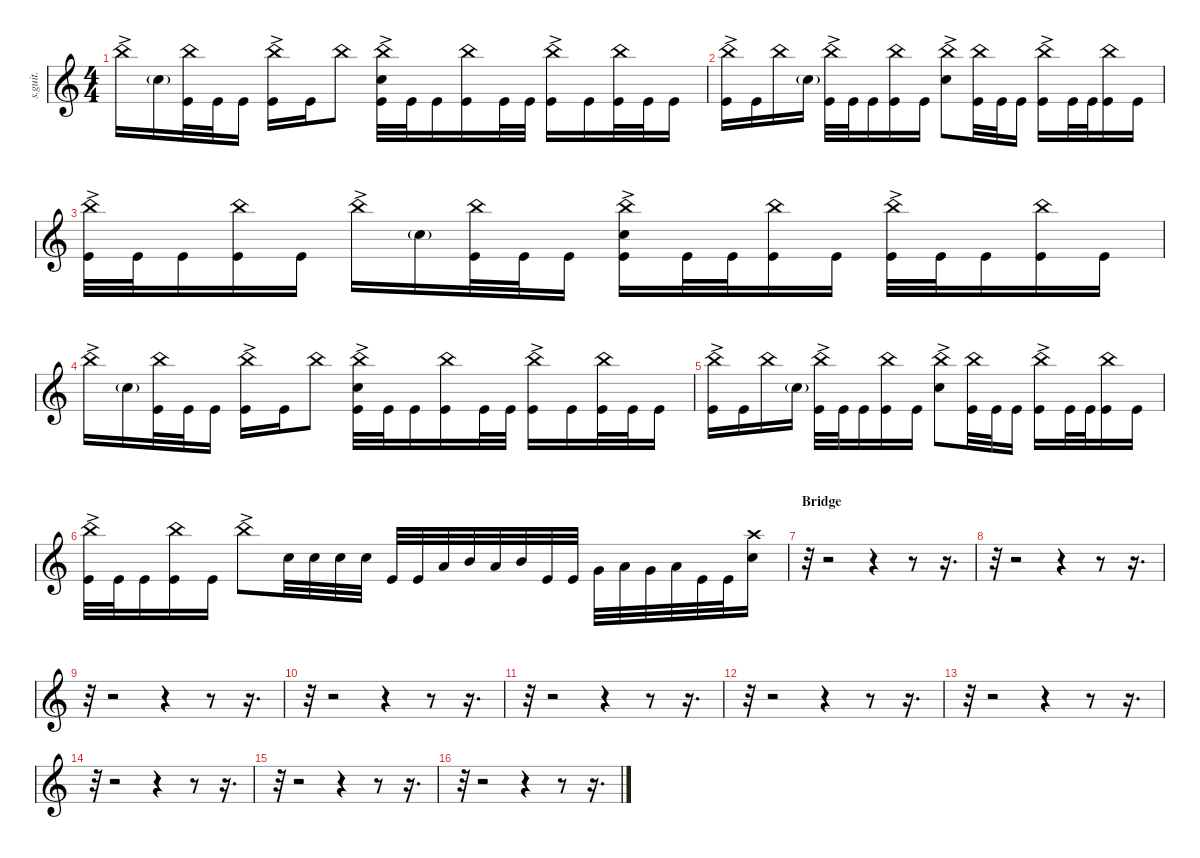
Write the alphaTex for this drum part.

\defaultSystemsLayout 4
\hideDynamics
\bracketExtendMode nobrackets
\track ("Tomas Haake (Drums)" "s.guit.") {instrument percussion}
\staff {score}
\articulation defaults
\ts (4 4)
\tempo (115 hide)
\clef g2
\ks c "China (hit)"{ac}.16{lyrics (0 "") lyrics (1 "") lyrics (2 "") lyrics (3 "") lyrics (4 "") dy ppp} "Snare (hit) 2"{g}.16{lyrics (0 "") lyrics (1 "") lyrics (2 "") lyrics (3 "") lyrics (4 "") dy f}
("China (hit)" "Kick (hit)").32{lyrics (0 "") lyrics (1 "") lyrics (2 "") lyrics (3 "") lyrics (4 "") dy p} "Kick (hit)".32{lyrics (0 "") lyrics (1 "") lyrics (2 "") lyrics (3 "") lyrics (4 "") dy mf} "Kick (hit)".16{lyrics (0 "") lyrics (1 "") lyrics (2 "") lyrics (3 "") lyrics (4 "") dy f} ("China (hit)"{ac} "Kick (hit)").16{lyrics (0 "") lyrics (1 "") lyrics (2 "") lyrics (3 "") lyrics (4 "")} "Kick (hit)".16{lyrics (0 "") lyrics (1 "") lyrics (2 "") lyrics (3 "") lyrics (4 "")} "China (hit)".8{lyrics (0 "") lyrics (1 "") lyrics (2 "") lyrics (3 "") lyrics (4 "") dy p} ("China (hit)"{ac} "Snare (hit) 2" "Kick (hit)").32{lyrics (0 "") lyrics (1 "") lyrics (2 "") lyrics (3 "") lyrics (4 "") dy f} "Kick (hit)".32{lyrics (0 "") lyrics (1 "") lyrics (2 "") lyrics (3 "") lyrics (4 "") dy mf} "Kick (hit)".16{lyrics (0 "") lyrics (1 "") lyrics (2 "") lyrics (3 "") lyrics (4 "") dy f} ("China (hit)" "Kick (hit)").16{lyrics (0 "") lyrics (1 "") lyrics (2 "") lyrics (3 "") lyrics (4 "") dy p} "Kick (hit)".32{lyrics (0 "") lyrics (1 "") lyrics (2 "") lyrics (3 "") lyrics (4 "") dy f} "Kick (hit)".32{lyrics (0 "") lyrics (1 "") lyrics (2 "") lyrics (3 "") lyrics (4 "") dy mf} ("China (hit)"{ac} "Kick (hit)").16{lyrics (0 "") lyrics (1 "") lyrics (2 "") lyrics (3 "") lyrics (4 "") dy f} "Kick (hit)".16{lyrics (0 "") lyrics (1 "") lyrics (2 "") lyrics (3 "") lyrics (4 "")} ("China (hit)" "Kick (hit)").32{lyrics (0 "") lyrics (1 "") lyrics (2 "") lyrics (3 "") lyrics (4 "") dy p} "Kick (hit)".32{lyrics (0 "") lyrics (1 "") lyrics (2 "") lyrics (3 "") lyrics (4 "") dy mf} "Kick (hit)".16{lyrics (0 "") lyrics (1 "") lyrics (2 "") lyrics (3 "") lyrics (4 "") dy f} |
("China (hit)"{ac} "Kick (hit)").16{lyrics (0 "") lyrics (1 "") lyrics (2 "") lyrics (3 "") lyrics (4 "")} "Kick (hit)".16{lyrics (0 "") lyrics (1 "") lyrics (2 "") lyrics (3 "") lyrics (4 "")} "China (hit)".16{lyrics (0 "") lyrics (1 "") lyrics (2 "") lyrics (3 "") lyrics (4 "") dy p} "Snare (hit) 2"{g}.16{lyrics (0 "") lyrics (1 "") lyrics (2 "") lyrics (3 "") lyrics (4 "") dy f} ("China (hit)"{ac} "Kick (hit)").32{lyrics (0 "") lyrics (1 "") lyrics (2 "") lyrics (3 "") lyrics (4 "")} "Kick (hit)".32{lyrics (0 "") lyrics (1 "") lyrics (2 "") lyrics (3 "") lyrics (4 "") dy mf} "Kick (hit)".16{lyrics (0 "") lyrics (1 "") lyrics (2 "") lyrics (3 "") lyrics (4 "") dy f} ("China (hit)" "Kick (hit)").16{lyrics (0 "") lyrics (1 "") lyrics (2 "") lyrics (3 "") lyrics (4 "") dy p} "Kick (hit)".16{lyrics (0 "") lyrics (1 "") lyrics (2 "") lyrics (3 "") lyrics (4 "") dy f} ("China (hit)"{ac} "Snare (hit) 2").8{lyrics (0 "") lyrics (1 "") lyrics (2 "") lyrics (3 "") lyrics (4 "")} ("China (hit)" "Kick (hit)").32{lyrics (0 "") lyrics (1 "") lyrics (2 "") lyrics (3 "") lyrics (4 "") dy p} "Kick (hit)".32{lyrics (0 "") lyrics (1 "") lyrics (2 "") lyrics (3 "") lyrics (4 "") dy mf} "Kick (hit)".16{lyrics (0 "") lyrics (1 "") lyrics (2 "") lyrics (3 "") lyrics (4 "") dy f} ("China (hit)"{ac} "Kick (hit)").16{lyrics (0 "") lyrics (1 "") lyrics (2 "") lyrics (3 "") lyrics (4 "")} "Kick (hit)".32{lyrics (0 "") lyrics (1 "") lyrics (2 "") lyrics (3 "") lyrics (4 "")} "Kick (hit)".32{lyrics (0 "") lyrics (1 "") lyrics (2 "") lyrics (3 "") lyrics (4 "") dy mf} ("China (hit)" "Kick (hit)").16{lyrics (0 "") lyrics (1 "") lyrics (2 "") lyrics (3 "") lyrics (4 "") dy p} "Kick (hit)".16{lyrics (0 "") lyrics (1 "") lyrics (2 "") lyrics (3 "") lyrics (4 "") dy f} |
("China (hit)"{ac} "Kick (hit)").32{lyrics (0 "") lyrics (1 "") lyrics (2 "") lyrics (3 "") lyrics (4 "")} "Kick (hit)".32{lyrics (0 "") lyrics (1 "") lyrics (2 "") lyrics (3 "") lyrics (4 "") dy mf} "Kick (hit)".16{lyrics (0 "") lyrics (1 "") lyrics (2 "") lyrics (3 "") lyrics (4 "") dy f} ("China (hit)" "Kick (hit)").16{lyrics (0 "") lyrics (1 "") lyrics (2 "") lyrics (3 "") lyrics (4 "") dy p} "Kick (hit)".16{lyrics (0 "") lyrics (1 "") lyrics (2 "") lyrics (3 "") lyrics (4 "") dy f} "China (hit)"{ac}.16{lyrics (0 "") lyrics (1 "") lyrics (2 "") lyrics (3 "") lyrics (4 "") dy ppp} "Snare (hit) 2"{g}.16{lyrics (0 "") lyrics (1 "") lyrics (2 "") lyrics (3 "") lyrics (4 "") dy f} ("China (hit)" "Kick (hit)").32{lyrics (0 "") lyrics (1 "") lyrics (2 "") lyrics (3 "") lyrics (4 "") dy p} "Kick (hit)".32{lyrics (0 "") lyrics (1 "") lyrics (2 "") lyrics (3 "") lyrics (4 "") dy mf} "Kick (hit)".16{lyrics (0 "") lyrics (1 "") lyrics (2 "") lyrics (3 "") lyrics (4 "") dy f} ("China (hit)"{ac} "Snare (hit) 2" "Kick (hit)").16{lyrics (0 "") lyrics (1 "") lyrics (2 "") lyrics (3 "") lyrics (4 "")} "Kick (hit)".32{lyrics (0 "") lyrics (1 "") lyrics (2 "") lyrics (3 "") lyrics (4 "")} "Kick (hit)".32{lyrics (0 "") lyrics (1 "") lyrics (2 "") lyrics (3 "") lyrics (4 "") dy mf} ("China (hit)" "Kick (hit)").16{lyrics (0 "") lyrics (1 "") lyrics (2 "") lyrics (3 "") lyrics (4 "") dy p} "Kick (hit)".16{lyrics (0 "") lyrics (1 "") lyrics (2 "") lyrics (3 "") lyrics (4 "") dy f} ("China (hit)"{ac} "Kick (hit)").32{lyrics (0 "") lyrics (1 "") lyrics (2 "") lyrics (3 "") lyrics (4 "")} "Kick (hit)".32{lyrics (0 "") lyrics (1 "") lyrics (2 "") lyrics (3 "") lyrics (4 "") dy mf} "Kick (hit)".16{lyrics (0 "") lyrics (1 "") lyrics (2 "") lyrics (3 "") lyrics (4 "") dy f} ("China (hit)" "Kick (hit)").16{lyrics (0 "") lyrics (1 "") lyrics (2 "") lyrics (3 "") lyrics (4 "") dy p} "Kick (hit)".16{lyrics (0 "") lyrics (1 "") lyrics (2 "") lyrics (3 "") lyrics (4 "") dy f} |
"China (hit)"{ac}.16{lyrics (0 "") lyrics (1 "") lyrics (2 "") lyrics (3 "") lyrics (4 "") dy ppp} "Snare (hit) 2"{g}.16{lyrics (0 "") lyrics (1 "") lyrics (2 "") lyrics (3 "") lyrics (4 "") dy f} ("China (hit)" "Kick (hit)").32{lyrics (0 "") lyrics (1 "") lyrics (2 "") lyrics (3 "") lyrics (4 "") dy p} "Kick (hit)".32{lyrics (0 "") lyrics (1 "") lyrics (2 "") lyrics (3 "") lyrics (4 "") dy mf} "Kick (hit)".16{lyrics (0 "") lyrics (1 "") lyrics (2 "") lyrics (3 "") lyrics (4 "") dy f} ("China (hit)"{ac} "Kick (hit)").16{lyrics (0 "") lyrics (1 "") lyrics (2 "") lyrics (3 "") lyrics (4 "")} "Kick (hit)".16{lyrics (0 "") lyrics (1 "") lyrics (2 "") lyrics (3 "") lyrics (4 "")} "China (hit)".8{lyrics (0 "") lyrics (1 "") lyrics (2 "") lyrics (3 "") lyrics (4 "") dy p} ("China (hit)"{ac} "Snare (hit) 2" "Kick (hit)").32{lyrics (0 "") lyrics (1 "") lyrics (2 "") lyrics (3 "") lyrics (4 "") dy f} "Kick (hit)".32{lyrics (0 "") lyrics (1 "") lyrics (2 "") lyrics (3 "") lyrics (4 "") dy mf} "Kick (hit)".16{lyrics (0 "") lyrics (1 "") lyrics (2 "") lyrics (3 "") lyrics (4 "") dy f} ("China (hit)" "Kick (hit)").16{lyrics (0 "") lyrics (1 "") lyrics (2 "") lyrics (3 "") lyrics (4 "") dy p} "Kick (hit)".32{lyrics (0 "") lyrics (1 "") lyrics (2 "") lyrics (3 "") lyrics (4 "") dy f} "Kick (hit)".32{lyrics (0 "") lyrics (1 "") lyrics (2 "") lyrics (3 "") lyrics (4 "") dy mf} ("China (hit)"{ac} "Kick (hit)").16{lyrics (0 "") lyrics (1 "") lyrics (2 "") lyrics (3 "") lyrics (4 "") dy f} "Kick (hit)".16{lyrics (0 "") lyrics (1 "") lyrics (2 "") lyrics (3 "") lyrics (4 "")} ("China (hit)" "Kick (hit)").32{lyrics (0 "") lyrics (1 "") lyrics (2 "") lyrics (3 "") lyrics (4 "") dy p} "Kick (hit)".32{lyrics (0 "") lyrics (1 "") lyrics (2 "") lyrics (3 "") lyrics (4 "") dy mf} "Kick (hit)".16{lyrics (0 "") lyrics (1 "") lyrics (2 "") lyrics (3 "") lyrics (4 "") dy f} |
("China (hit)"{ac} "Kick (hit)").16{lyrics (0 "") lyrics (1 "") lyrics (2 "") lyrics (3 "") lyrics (4 "")} "Kick (hit)".16{lyrics (0 "") lyrics (1 "") lyrics (2 "") lyrics (3 "") lyrics (4 "")} "China (hit)".16{lyrics (0 "") lyrics (1 "") lyrics (2 "") lyrics (3 "") lyrics (4 "") dy p} "Snare (hit) 2"{g}.16{lyrics (0 "") lyrics (1 "") lyrics (2 "") lyrics (3 "") lyrics (4 "") dy f} ("China (hit)"{ac} "Kick (hit)").32{lyrics (0 "") lyrics (1 "") lyrics (2 "") lyrics (3 "") lyrics (4 "")} "Kick (hit)".32{lyrics (0 "") lyrics (1 "") lyrics (2 "") lyrics (3 "") lyrics (4 "") dy mf} "Kick (hit)".16{lyrics (0 "") lyrics (1 "") lyrics (2 "") lyrics (3 "") lyrics (4 "") dy f} ("China (hit)" "Kick (hit)").16{lyrics (0 "") lyrics (1 "") lyrics (2 "") lyrics (3 "") lyrics (4 "") dy p} "Kick (hit)".16{lyrics (0 "") lyrics (1 "") lyrics (2 "") lyrics (3 "") lyrics (4 "") dy f} ("China (hit)"{ac} "Snare (hit) 2").8{lyrics (0 "") lyrics (1 "") lyrics (2 "") lyrics (3 "") lyrics (4 "")} ("China (hit)" "Kick (hit)").32{lyrics (0 "") lyrics (1 "") lyrics (2 "") lyrics (3 "") lyrics (4 "") dy p} "Kick (hit)".32{lyrics (0 "") lyrics (1 "") lyrics (2 "") lyrics (3 "") lyrics (4 "") dy mf} "Kick (hit)".16{lyrics (0 "") lyrics (1 "") lyrics (2 "") lyrics (3 "") lyrics (4 "") dy f} ("China (hit)"{ac} "Kick (hit)").16{lyrics (0 "") lyrics (1 "") lyrics (2 "") lyrics (3 "") lyrics (4 "")} "Kick (hit)".32{lyrics (0 "") lyrics (1 "") lyrics (2 "") lyrics (3 "") lyrics (4 "")} "Kick (hit)".32{lyrics (0 "") lyrics (1 "") lyrics (2 "") lyrics (3 "") lyrics (4 "") dy mf} ("China (hit)" "Kick (hit)").16{lyrics (0 "") lyrics (1 "") lyrics (2 "") lyrics (3 "") lyrics (4 "") dy p} "Kick (hit)".16{lyrics (0 "") lyrics (1 "") lyrics (2 "") lyrics (3 "") lyrics (4 "") dy f} |
("China (hit)"{ac} "Kick (hit)").32{lyrics (0 "") lyrics (1 "") lyrics (2 "") lyrics (3 "") lyrics (4 "")} "Kick (hit)".32{lyrics (0 "") lyrics (1 "") lyrics (2 "") lyrics (3 "") lyrics (4 "")} "Kick (hit)".16{lyrics (0 "") lyrics (1 "") lyrics (2 "") lyrics (3 "") lyrics (4 "")} ("China (hit)" "Kick (hit)").16{lyrics (0 "") lyrics (1 "") lyrics (2 "") lyrics (3 "") lyrics (4 "") dy p} "Kick (hit)".16{lyrics (0 "") lyrics (1 "") lyrics (2 "") lyrics (3 "") lyrics (4 "") dy f} "China (hit)"{ac}.8{lyrics (0 "") lyrics (1 "") lyrics (2 "") lyrics (3 "") lyrics (4 "") dy ppp} "Snare (hit) 2".32{lyrics (0 "") lyrics (1 "") lyrics (2 "") lyrics (3 "") lyrics (4 "") dy mp} "Snare (hit) 2".32{lyrics (0 "") lyrics (1 "") lyrics (2 "") lyrics (3 "") lyrics (4 "")} "Snare (hit) 2".32{lyrics (0 "") lyrics (1 "") lyrics (2 "") lyrics (3 "") lyrics (4 "") dy mf} "Snare (hit) 2".32{lyrics (0 "") lyrics (1 "") lyrics (2 "") lyrics (3 "") lyrics (4 "") dy mp} "Kick (hit)".32{lyrics (0 "") lyrics (1 "") lyrics (2 "") lyrics (3 "") lyrics (4 "") dy mf} "Kick (hit)".32{lyrics (0 "") lyrics (1 "") lyrics (2 "") lyrics (3 "") lyrics (4 "") dy f} "Low Tom (hit)".32{lyrics (0 "") lyrics (1 "") lyrics (2 "") lyrics (3 "") lyrics (4 "") dy mp} "Mid Tom (hit)".32{lyrics (0 "") lyrics (1 "") lyrics (2 "") lyrics (3 "") lyrics (4 "")} "Low Tom (hit)".32{lyrics (0 "") lyrics (1 "") lyrics (2 "") lyrics (3 "") lyrics (4 "")} "Mid Tom (hit)".32{lyrics (0 "") lyrics (1 "") lyrics (2 "") lyrics (3 "") lyrics (4 "")} "Kick (hit)".32{lyrics (0 "") lyrics (1 "") lyrics (2 "") lyrics (3 "") lyrics (4 "") dy mf} "Kick (hit)".32{lyrics (0 "") lyrics (1 "") lyrics (2 "") lyrics (3 "") lyrics (4 "") dy f} "Very Low Tom (hit)".32{lyrics (0 "") lyrics (1 "") lyrics (2 "") lyrics (3 "") lyrics (4 "") dy mp} "Low Tom (hit)".32{lyrics (0 "") lyrics (1 "") lyrics (2 "") lyrics (3 "") lyrics (4 "") dy mf} "Very Low Tom (hit)".32{lyrics (0 "") lyrics (1 "") lyrics (2 "") lyrics (3 "") lyrics (4 "") dy mp} "Low Tom (hit)".32{lyrics (0 "") lyrics (1 "") lyrics (2 "") lyrics (3 "") lyrics (4 "")} "Kick (hit)".32{lyrics (0 "") lyrics (1 "") lyrics (2 "") lyrics (3 "") lyrics (4 "") dy mf} "Kick (hit)".32{lyrics (0 "") lyrics (1 "") lyrics (2 "") lyrics (3 "") lyrics (4 "") dy f} ("Crash high (hit)" "Snare (hit) 2").16{lyrics (0 "") lyrics (1 "") lyrics (2 "") lyrics (3 "") lyrics (4 "") dy mf} |
\section ("" "Bridge")
r.32 r.2 r.4 r.8 r.16{d} |
r.32 r.2 r.4 r.8 r.16{d} |
r.32 r.2 r.4 r.8 r.16{d} |
r.32 r.2 r.4 r.8 r.16{d} |
r.32 r.2 r.4 r.8 r.16{d} |
r.32 r.2 r.4 r.8 r.16{d} |
r.32 r.2 r.4 r.8 r.16{d} |
r.32 r.2 r.4 r.8 r.16{d} |
r.32 r.2 r.4 r.8 r.16{d} |
r.32 r.2 r.4 r.8 r.16{d}
